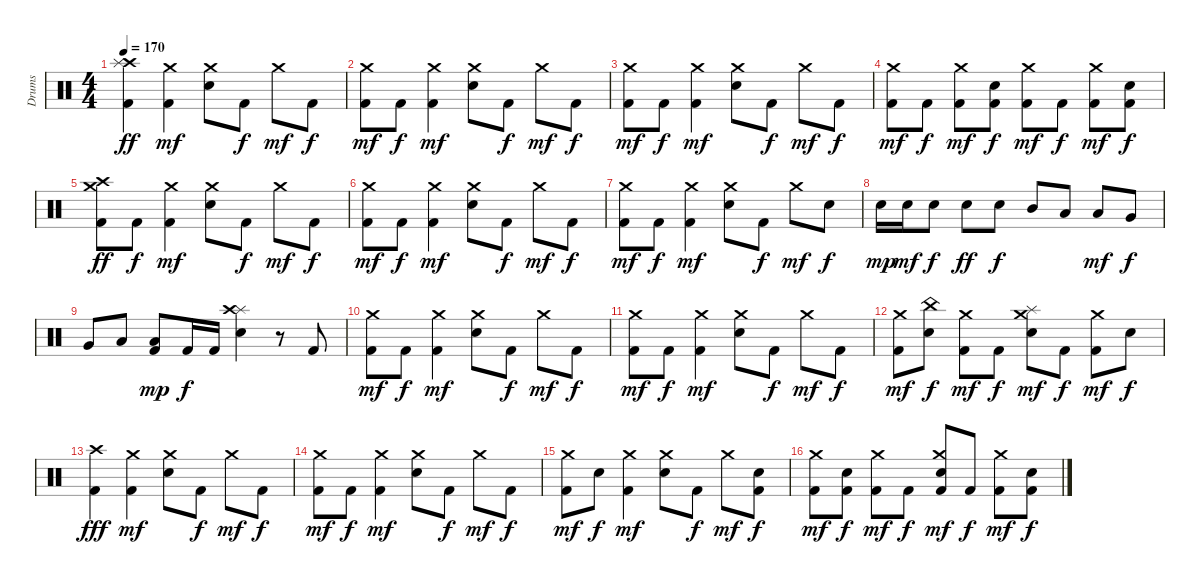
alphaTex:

\track ("Drums" "Drums") {instrument percussion}
\staff {score}
\articulation defaults
\ts (4 4)
\tempo 170
\clef neutral
\ks c
("Crash high (hit)" "Splash (hit)" "Kick (hit) 2").4{dy ff} ("Crash medium (hit)" "Kick (hit) 2").4{dy mf} ("Crash medium (hit)" "Electric Snare (hit)").8 "Kick (hit) 2".8{dy f} "Crash medium (hit)".8{dy mf} "Kick (hit) 2".8{dy f} |
("Crash medium (hit)" "Kick (hit) 2").8{dy mf} "Kick (hit) 2".8{dy f} ("Crash medium (hit)" "Kick (hit) 2").4{dy mf} ("Crash medium (hit)" "Electric Snare (hit)").8 "Kick (hit) 2".8{dy f} "Crash medium (hit)".8{dy mf} "Kick (hit) 2".8{dy f} |
("Crash medium (hit)" "Kick (hit) 2").8{dy mf} "Kick (hit) 2".8{dy f} ("Crash medium (hit)" "Kick (hit) 2").4{dy mf} ("Crash medium (hit)" "Electric Snare (hit)").8 "Kick (hit) 2".8{dy f} "Crash medium (hit)".8{dy mf} "Kick (hit) 2".8{dy f} |
("Crash medium (hit)" "Kick (hit) 2").8{dy mf} "Kick (hit) 2".8{dy f} ("Crash medium (hit)" "Kick (hit) 2").8{dy mf} ("Electric Snare (hit)" "Kick (hit) 2").8{dy f} ("Crash medium (hit)" "Kick (hit) 2").8{dy mf} "Kick (hit) 2".8{dy f} ("Crash medium (hit)" "Kick (hit) 2").8{dy mf} ("Electric Snare (hit)" "Kick (hit) 2").8{dy f} |
("Crash medium (hit)" "Crash high (hit)" "Kick (hit) 2").8{dy ff} "Kick (hit) 2".8{dy f} ("Crash medium (hit)" "Kick (hit) 2").4{dy mf} ("Crash medium (hit)" "Electric Snare (hit)").8 "Kick (hit) 2".8{dy f} "Crash medium (hit)".8{dy mf} "Kick (hit) 2".8{dy f} |
("Crash medium (hit)" "Kick (hit) 2").8{dy mf} "Kick (hit) 2".8{dy f} ("Crash medium (hit)" "Kick (hit) 2").4{dy mf} ("Crash medium (hit)" "Electric Snare (hit)").8 "Kick (hit) 2".8{dy f} "Crash medium (hit)".8{dy mf} "Kick (hit) 2".8{dy f} |
("Crash medium (hit)" "Kick (hit) 2").8{dy mf} "Kick (hit) 2".8{dy f} ("Crash medium (hit)" "Kick (hit) 2").4{dy mf} ("Crash medium (hit)" "Electric Snare (hit)").8 "Kick (hit) 2".8{dy f} "Crash medium (hit)".8{dy mf} "Electric Snare (hit)".8{dy f} |
"Electric Snare (hit)".16{dy mp} "Electric Snare (hit)".16{dy mf} "Electric Snare (hit)".8{dy f} "Electric Snare (hit)".8{dy ff} "Electric Snare (hit)".8{dy f} "Mid Tom (hit)".8 "Low Tom (hit)".8 "Low Tom (hit)".8{dy mf} "Very Low Tom (hit)".8{dy f} |
"Very Low Tom (hit)".8 "Low Floor Tom (hit)".8 ("Low Floor Tom (hit)" "Kick (hit) 2").8{dy mp} "Kick (hit) 2".16{dy f} "Kick (hit) 2".16 ("Splash (hit)" "Crash high (hit)" "Electric Snare (hit)").4 r.8 "Kick (hit) 2".8 |
("Crash medium (hit)" "Kick (hit) 2").8{dy mf} "Kick (hit) 2".8{dy f} ("Crash medium (hit)" "Kick (hit) 2").4{dy mf} ("Crash medium (hit)" "Electric Snare (hit)").8 "Kick (hit) 2".8{dy f} "Crash medium (hit)".8{dy mf} "Kick (hit) 2".8{dy f} |
("Crash medium (hit)" "Kick (hit) 2").8{dy mf} "Kick (hit) 2".8{dy f} ("Crash medium (hit)" "Kick (hit) 2").4{dy mf} ("Crash medium (hit)" "Electric Snare (hit)").8 "Kick (hit) 2".8{dy f} "Crash medium (hit)".8{dy mf} "Kick (hit) 2".8{dy f} |
("Crash medium (hit)" "Kick (hit) 2").8{dy mf} ("China (hit)" "Electric Snare (hit)").8{dy f} ("Crash medium (hit)" "Kick (hit) 2").8{dy mf} "Kick (hit) 2".8{dy f} ("Crash medium (hit)" "Splash (hit)" "Electric Snare (hit)").8{dy mf} "Kick (hit) 2".8{dy f} ("Crash medium (hit)" "Kick (hit) 2").8{dy mf} "Electric Snare (hit)".8{dy f} |
("Crash high (hit)" "Kick (hit) 2").4{dy fff} ("Crash medium (hit)" "Kick (hit) 2").4{dy mf} ("Crash medium (hit)" "Electric Snare (hit)").8 "Kick (hit) 2".8{dy f} "Crash medium (hit)".8{dy mf} "Kick (hit) 2".8{dy f} |
("Crash medium (hit)" "Kick (hit) 2").8{dy mf} "Kick (hit) 2".8{dy f} ("Crash medium (hit)" "Kick (hit) 2").4{dy mf} ("Crash medium (hit)" "Electric Snare (hit)").8 "Kick (hit) 2".8{dy f} "Crash medium (hit)".8{dy mf} "Kick (hit) 2".8{dy f} |
("Crash medium (hit)" "Kick (hit) 2").8{dy mf} "Electric Snare (hit)".8{dy f} ("Crash medium (hit)" "Kick (hit) 2").4{dy mf} ("Crash medium (hit)" "Electric Snare (hit)").8 "Kick (hit) 2".8{dy f} "Crash medium (hit)".8{dy mf} ("Electric Snare (hit)" "Kick (hit) 2").8{dy f} |
("Crash medium (hit)" "Kick (hit) 2").8{dy mf} ("Electric Snare (hit)" "Kick (hit) 2").8{dy f} ("Crash medium (hit)" "Kick (hit) 2").8{dy mf} "Kick (hit) 2".8{dy f} ("Crash medium (hit)" "Electric Snare (hit)" "Kick (hit) 2").8{dy mf} "Kick (hit) 2".8{dy f} ("Crash medium (hit)" "Kick (hit) 2").8{dy mf} ("Electric Snare (hit)" "Kick (hit) 2").8{dy f}
